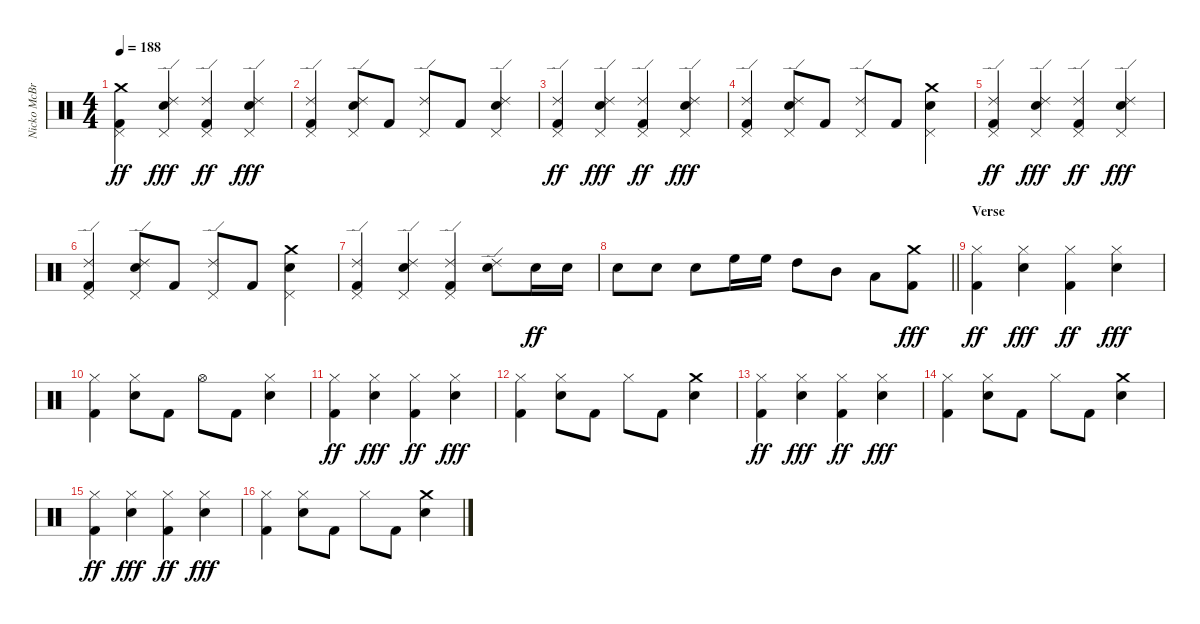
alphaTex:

\track ("Nicko McBrain" "Nicko McBr") {instrument percussion}
\staff {score}
\articulation defaults
\ts (4 4)
\tempo 188
\clef neutral
\ks c
("Crash medium (hit)" "Pedal Hi-Hat (hit)" "Kick (hit) 2").4{dy ff} ("Ride (edge) 2" "Electric Snare (hit)" "Pedal Hi-Hat (hit)").4{dy fff} ("Ride (edge) 2" "Pedal Hi-Hat (hit)" "Kick (hit) 2").4{dy ff} ("Ride (edge) 2" "Electric Snare (hit)" "Pedal Hi-Hat (hit)").4{dy fff} |
("Ride (edge) 2" "Pedal Hi-Hat (hit)" "Kick (hit) 2").4 ("Ride (edge) 2" "Electric Snare (hit)" "Pedal Hi-Hat (hit)").8 "Kick (hit) 2".8 ("Ride (edge) 2" "Pedal Hi-Hat (hit)").8 "Kick (hit) 2".8 ("Ride (edge) 2" "Electric Snare (hit)" "Pedal Hi-Hat (hit)").4 |
("Ride (edge) 2" "Pedal Hi-Hat (hit)" "Kick (hit) 2").4{dy ff} ("Ride (edge) 2" "Electric Snare (hit)" "Pedal Hi-Hat (hit)").4{dy fff} ("Ride (edge) 2" "Pedal Hi-Hat (hit)" "Kick (hit) 2").4{dy ff} ("Ride (edge) 2" "Electric Snare (hit)" "Pedal Hi-Hat (hit)").4{dy fff} |
("Ride (edge) 2" "Pedal Hi-Hat (hit)" "Kick (hit) 2").4 ("Ride (edge) 2" "Electric Snare (hit)" "Pedal Hi-Hat (hit)").8 "Kick (hit) 2".8 ("Ride (edge) 2" "Pedal Hi-Hat (hit)").8 "Kick (hit) 2".8 ("Crash medium (hit)" "Electric Snare (hit)" "Pedal Hi-Hat (hit)").4 |
("Ride (edge) 2" "Pedal Hi-Hat (hit)" "Kick (hit) 2").4{dy ff} ("Ride (edge) 2" "Electric Snare (hit)" "Pedal Hi-Hat (hit)").4{dy fff} ("Ride (edge) 2" "Pedal Hi-Hat (hit)" "Kick (hit) 2").4{dy ff} ("Ride (edge) 2" "Electric Snare (hit)" "Pedal Hi-Hat (hit)").4{dy fff} |
("Ride (edge) 2" "Pedal Hi-Hat (hit)" "Kick (hit) 2").4 ("Ride (edge) 2" "Electric Snare (hit)" "Pedal Hi-Hat (hit)").8 "Kick (hit) 2".8 ("Ride (edge) 2" "Pedal Hi-Hat (hit)").8 "Kick (hit) 2".8 ("Crash medium (hit)" "Electric Snare (hit)" "Pedal Hi-Hat (hit)").4 |
("Ride (edge) 2" "Pedal Hi-Hat (hit)" "Kick (hit) 2").4 ("Ride (edge) 2" "Electric Snare (hit)" "Pedal Hi-Hat (hit)").4 ("Ride (edge) 2" "Pedal Hi-Hat (hit)" "Kick (hit) 2").4 ("Ride (edge) 2" "Electric Snare (hit)").8 "Electric Snare (hit)".16{dy ff} "Electric Snare (hit)".16 |
\barLineRight lightlight "Electric Snare (hit)".8 "Electric Snare (hit)".8 "Electric Snare (hit)".8 "High Floor Tom (hit)".16 "High Floor Tom (hit)".16 "High Tom (hit)".8 "Mid Tom (hit)".8 "Low Tom (hit)".8
("Crash medium (hit)" "Kick (hit) 2").8{dy fff} |
\section ("" "Verse")
("Hi-Hat (closed)" "Kick (hit) 2").4{dy ff} ("Hi-Hat (closed)" "Electric Snare (hit)").4{dy fff} ("Hi-Hat (closed)" "Kick (hit) 2").4{dy ff} ("Hi-Hat (closed)" "Electric Snare (hit)").4{dy fff} |
("Hi-Hat (closed)" "Kick (hit) 2").4 ("Hi-Hat (closed)" "Electric Snare (hit)").8 "Kick (hit) 2".8 "Hi-Hat (open)".8 "Kick (hit) 2".8 ("Hi-Hat (closed)" "Electric Snare (hit)").4 |
("Hi-Hat (closed)" "Kick (hit) 2").4{dy ff} ("Hi-Hat (closed)" "Electric Snare (hit)").4{dy fff} ("Hi-Hat (closed)" "Kick (hit) 2").4{dy ff} ("Hi-Hat (closed)" "Electric Snare (hit)").4{dy fff} |
("Hi-Hat (closed)" "Kick (hit) 2").4 ("Hi-Hat (closed)" "Electric Snare (hit)").8 "Kick (hit) 2".8 "Hi-Hat (closed)".8 "Kick (hit) 2".8 ("Crash medium (hit)" "Electric Snare (hit)").4 |
("Hi-Hat (closed)" "Kick (hit) 2").4{dy ff} ("Hi-Hat (closed)" "Electric Snare (hit)").4{dy fff} ("Hi-Hat (closed)" "Kick (hit) 2").4{dy ff} ("Hi-Hat (closed)" "Electric Snare (hit)").4{dy fff} |
("Hi-Hat (closed)" "Kick (hit) 2").4 ("Hi-Hat (closed)" "Electric Snare (hit)").8 "Kick (hit) 2".8 "Hi-Hat (closed)".8 "Kick (hit) 2".8 ("Crash medium (hit)" "Electric Snare (hit)").4 |
("Hi-Hat (closed)" "Kick (hit) 2").4{dy ff} ("Hi-Hat (closed)" "Electric Snare (hit)").4{dy fff} ("Hi-Hat (closed)" "Kick (hit) 2").4{dy ff} ("Hi-Hat (closed)" "Electric Snare (hit)").4{dy fff} |
("Hi-Hat (closed)" "Kick (hit) 2").4 ("Hi-Hat (closed)" "Electric Snare (hit)").8 "Kick (hit) 2".8 "Hi-Hat (closed)".8 "Kick (hit) 2".8 ("Crash medium (hit)" "Electric Snare (hit)").4
